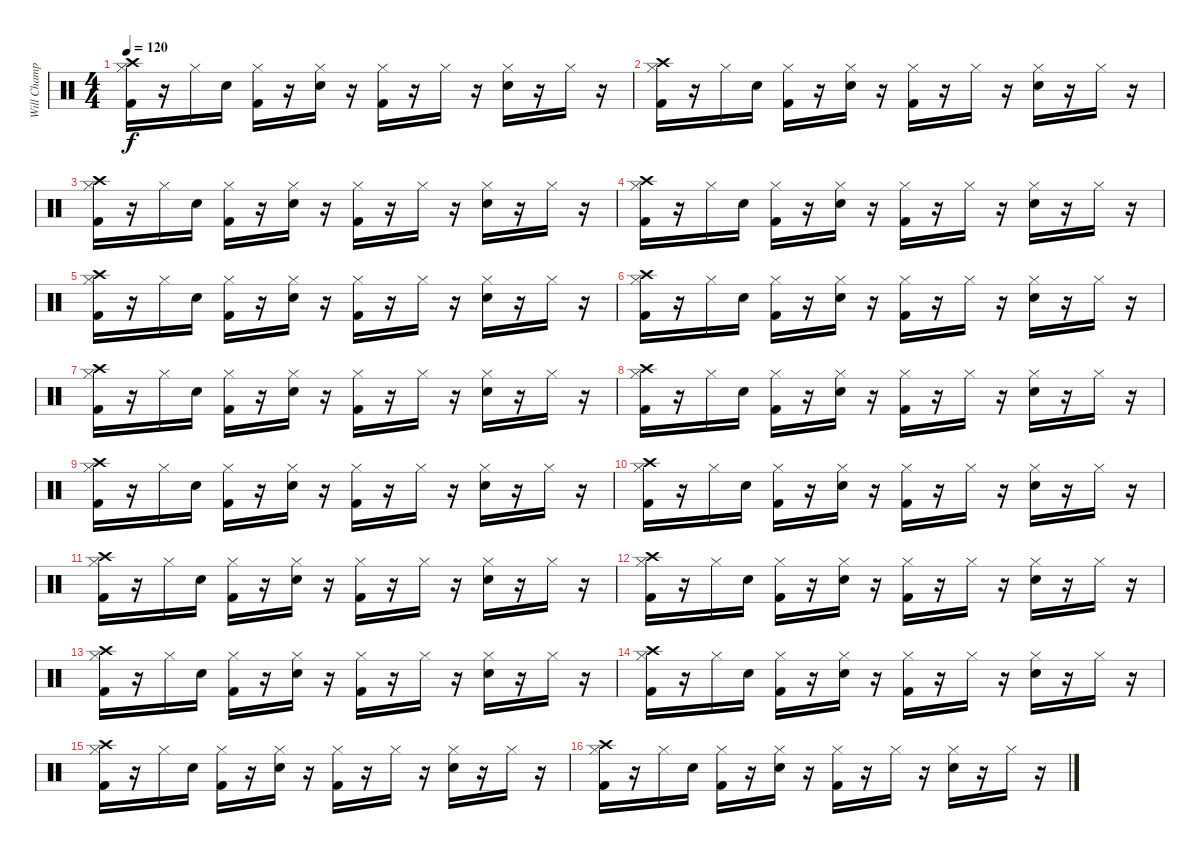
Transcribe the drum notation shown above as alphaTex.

\track ("Will Champion" "Will Champ") {instrument percussion}
\staff {score}
\articulation defaults
\ts (4 4)
\tempo 120
\clef neutral
\ks c
("Crash high (hit)" "Hi-Hat (closed)" "Kick (hit) 2").16{dy f} r.16 "Hi-Hat (closed)".16 "Snare (hit) 2".16 ("Hi-Hat (closed)" "Kick (hit) 2").16 r.16 ("Hi-Hat (closed)" "Snare (hit) 2").16 r.16 ("Hi-Hat (closed)" "Kick (hit) 2").16 r.16 "Hi-Hat (closed)".16 r.16 ("Hi-Hat (closed)" "Snare (hit) 2").16 r.16 "Hi-Hat (closed)".16 r.16 |
("Crash high (hit)" "Hi-Hat (closed)" "Kick (hit) 2").16 r.16 "Hi-Hat (closed)".16 "Snare (hit) 2".16 ("Hi-Hat (closed)" "Kick (hit) 2").16 r.16 ("Hi-Hat (closed)" "Snare (hit) 2").16 r.16 ("Hi-Hat (closed)" "Kick (hit) 2").16 r.16 "Hi-Hat (closed)".16 r.16 ("Hi-Hat (closed)" "Snare (hit) 2").16 r.16 "Hi-Hat (closed)".16 r.16 |
("Crash high (hit)" "Hi-Hat (closed)" "Kick (hit) 2").16 r.16 "Hi-Hat (closed)".16 "Snare (hit) 2".16 ("Hi-Hat (closed)" "Kick (hit) 2").16 r.16 ("Hi-Hat (closed)" "Snare (hit) 2").16 r.16 ("Hi-Hat (closed)" "Kick (hit) 2").16 r.16 "Hi-Hat (closed)".16 r.16 ("Hi-Hat (closed)" "Snare (hit) 2").16 r.16 "Hi-Hat (closed)".16 r.16 |
("Crash high (hit)" "Hi-Hat (closed)" "Kick (hit) 2").16 r.16 "Hi-Hat (closed)".16 "Snare (hit) 2".16 ("Hi-Hat (closed)" "Kick (hit) 2").16 r.16 ("Hi-Hat (closed)" "Snare (hit) 2").16 r.16 ("Hi-Hat (closed)" "Kick (hit) 2").16 r.16 "Hi-Hat (closed)".16 r.16 ("Hi-Hat (closed)" "Snare (hit) 2").16 r.16 "Hi-Hat (closed)".16 r.16 |
("Crash high (hit)" "Hi-Hat (closed)" "Kick (hit) 2").16 r.16 "Hi-Hat (closed)".16 "Snare (hit) 2".16 ("Hi-Hat (closed)" "Kick (hit) 2").16 r.16 ("Hi-Hat (closed)" "Snare (hit) 2").16 r.16 ("Hi-Hat (closed)" "Kick (hit) 2").16 r.16 "Hi-Hat (closed)".16 r.16 ("Hi-Hat (closed)" "Snare (hit) 2").16 r.16 "Hi-Hat (closed)".16 r.16 |
("Crash high (hit)" "Hi-Hat (closed)" "Kick (hit) 2").16 r.16 "Hi-Hat (closed)".16 "Snare (hit) 2".16 ("Hi-Hat (closed)" "Kick (hit) 2").16 r.16 ("Hi-Hat (closed)" "Snare (hit) 2").16 r.16 ("Hi-Hat (closed)" "Kick (hit) 2").16 r.16 "Hi-Hat (closed)".16 r.16 ("Hi-Hat (closed)" "Snare (hit) 2").16 r.16 "Hi-Hat (closed)".16 r.16 |
("Crash high (hit)" "Hi-Hat (closed)" "Kick (hit) 2").16 r.16 "Hi-Hat (closed)".16 "Snare (hit) 2".16 ("Hi-Hat (closed)" "Kick (hit) 2").16 r.16 ("Hi-Hat (closed)" "Snare (hit) 2").16 r.16 ("Hi-Hat (closed)" "Kick (hit) 2").16 r.16 "Hi-Hat (closed)".16 r.16 ("Hi-Hat (closed)" "Snare (hit) 2").16 r.16 "Hi-Hat (closed)".16 r.16 |
("Crash high (hit)" "Hi-Hat (closed)" "Kick (hit) 2").16 r.16 "Hi-Hat (closed)".16 "Snare (hit) 2".16 ("Hi-Hat (closed)" "Kick (hit) 2").16 r.16 ("Hi-Hat (closed)" "Snare (hit) 2").16 r.16 ("Hi-Hat (closed)" "Kick (hit) 2").16 r.16 "Hi-Hat (closed)".16 r.16 ("Hi-Hat (closed)" "Snare (hit) 2").16 r.16 "Hi-Hat (closed)".16 r.16 |
("Crash high (hit)" "Hi-Hat (closed)" "Kick (hit) 2").16 r.16 "Hi-Hat (closed)".16 "Snare (hit) 2".16 ("Hi-Hat (closed)" "Kick (hit) 2").16 r.16 ("Hi-Hat (closed)" "Snare (hit) 2").16 r.16 ("Hi-Hat (closed)" "Kick (hit) 2").16 r.16 "Hi-Hat (closed)".16 r.16 ("Hi-Hat (closed)" "Snare (hit) 2").16 r.16 "Hi-Hat (closed)".16 r.16 |
("Crash high (hit)" "Hi-Hat (closed)" "Kick (hit) 2").16 r.16 "Hi-Hat (closed)".16 "Snare (hit) 2".16 ("Hi-Hat (closed)" "Kick (hit) 2").16 r.16 ("Hi-Hat (closed)" "Snare (hit) 2").16 r.16 ("Hi-Hat (closed)" "Kick (hit) 2").16 r.16 "Hi-Hat (closed)".16 r.16 ("Hi-Hat (closed)" "Snare (hit) 2").16 r.16 "Hi-Hat (closed)".16 r.16 |
("Crash high (hit)" "Hi-Hat (closed)" "Kick (hit) 2").16 r.16 "Hi-Hat (closed)".16 "Snare (hit) 2".16 ("Hi-Hat (closed)" "Kick (hit) 2").16 r.16 ("Hi-Hat (closed)" "Snare (hit) 2").16 r.16 ("Hi-Hat (closed)" "Kick (hit) 2").16 r.16 "Hi-Hat (closed)".16 r.16 ("Hi-Hat (closed)" "Snare (hit) 2").16 r.16 "Hi-Hat (closed)".16 r.16 |
("Crash high (hit)" "Hi-Hat (closed)" "Kick (hit) 2").16 r.16 "Hi-Hat (closed)".16 "Snare (hit) 2".16 ("Hi-Hat (closed)" "Kick (hit) 2").16 r.16 ("Hi-Hat (closed)" "Snare (hit) 2").16 r.16 ("Hi-Hat (closed)" "Kick (hit) 2").16 r.16 "Hi-Hat (closed)".16 r.16 ("Hi-Hat (closed)" "Snare (hit) 2").16 r.16 "Hi-Hat (closed)".16 r.16 |
("Crash high (hit)" "Hi-Hat (closed)" "Kick (hit) 2").16 r.16 "Hi-Hat (closed)".16 "Snare (hit) 2".16 ("Hi-Hat (closed)" "Kick (hit) 2").16 r.16 ("Hi-Hat (closed)" "Snare (hit) 2").16 r.16 ("Hi-Hat (closed)" "Kick (hit) 2").16 r.16 "Hi-Hat (closed)".16 r.16 ("Hi-Hat (closed)" "Snare (hit) 2").16 r.16 "Hi-Hat (closed)".16 r.16 |
("Crash high (hit)" "Hi-Hat (closed)" "Kick (hit) 2").16 r.16 "Hi-Hat (closed)".16 "Snare (hit) 2".16 ("Hi-Hat (closed)" "Kick (hit) 2").16 r.16 ("Hi-Hat (closed)" "Snare (hit) 2").16 r.16 ("Hi-Hat (closed)" "Kick (hit) 2").16 r.16 "Hi-Hat (closed)".16 r.16 ("Hi-Hat (closed)" "Snare (hit) 2").16 r.16 "Hi-Hat (closed)".16 r.16 |
("Crash high (hit)" "Hi-Hat (closed)" "Kick (hit) 2").16 r.16 "Hi-Hat (closed)".16 "Snare (hit) 2".16 ("Hi-Hat (closed)" "Kick (hit) 2").16 r.16 ("Hi-Hat (closed)" "Snare (hit) 2").16 r.16 ("Hi-Hat (closed)" "Kick (hit) 2").16 r.16 "Hi-Hat (closed)".16 r.16 ("Hi-Hat (closed)" "Snare (hit) 2").16 r.16 "Hi-Hat (closed)".16 r.16 |
("Crash high (hit)" "Hi-Hat (closed)" "Kick (hit) 2").16 r.16 "Hi-Hat (closed)".16 "Snare (hit) 2".16 ("Hi-Hat (closed)" "Kick (hit) 2").16 r.16 ("Hi-Hat (closed)" "Snare (hit) 2").16 r.16 ("Hi-Hat (closed)" "Kick (hit) 2").16 r.16 "Hi-Hat (closed)".16 r.16 ("Hi-Hat (closed)" "Snare (hit) 2").16 r.16 "Hi-Hat (closed)".16 r.16
